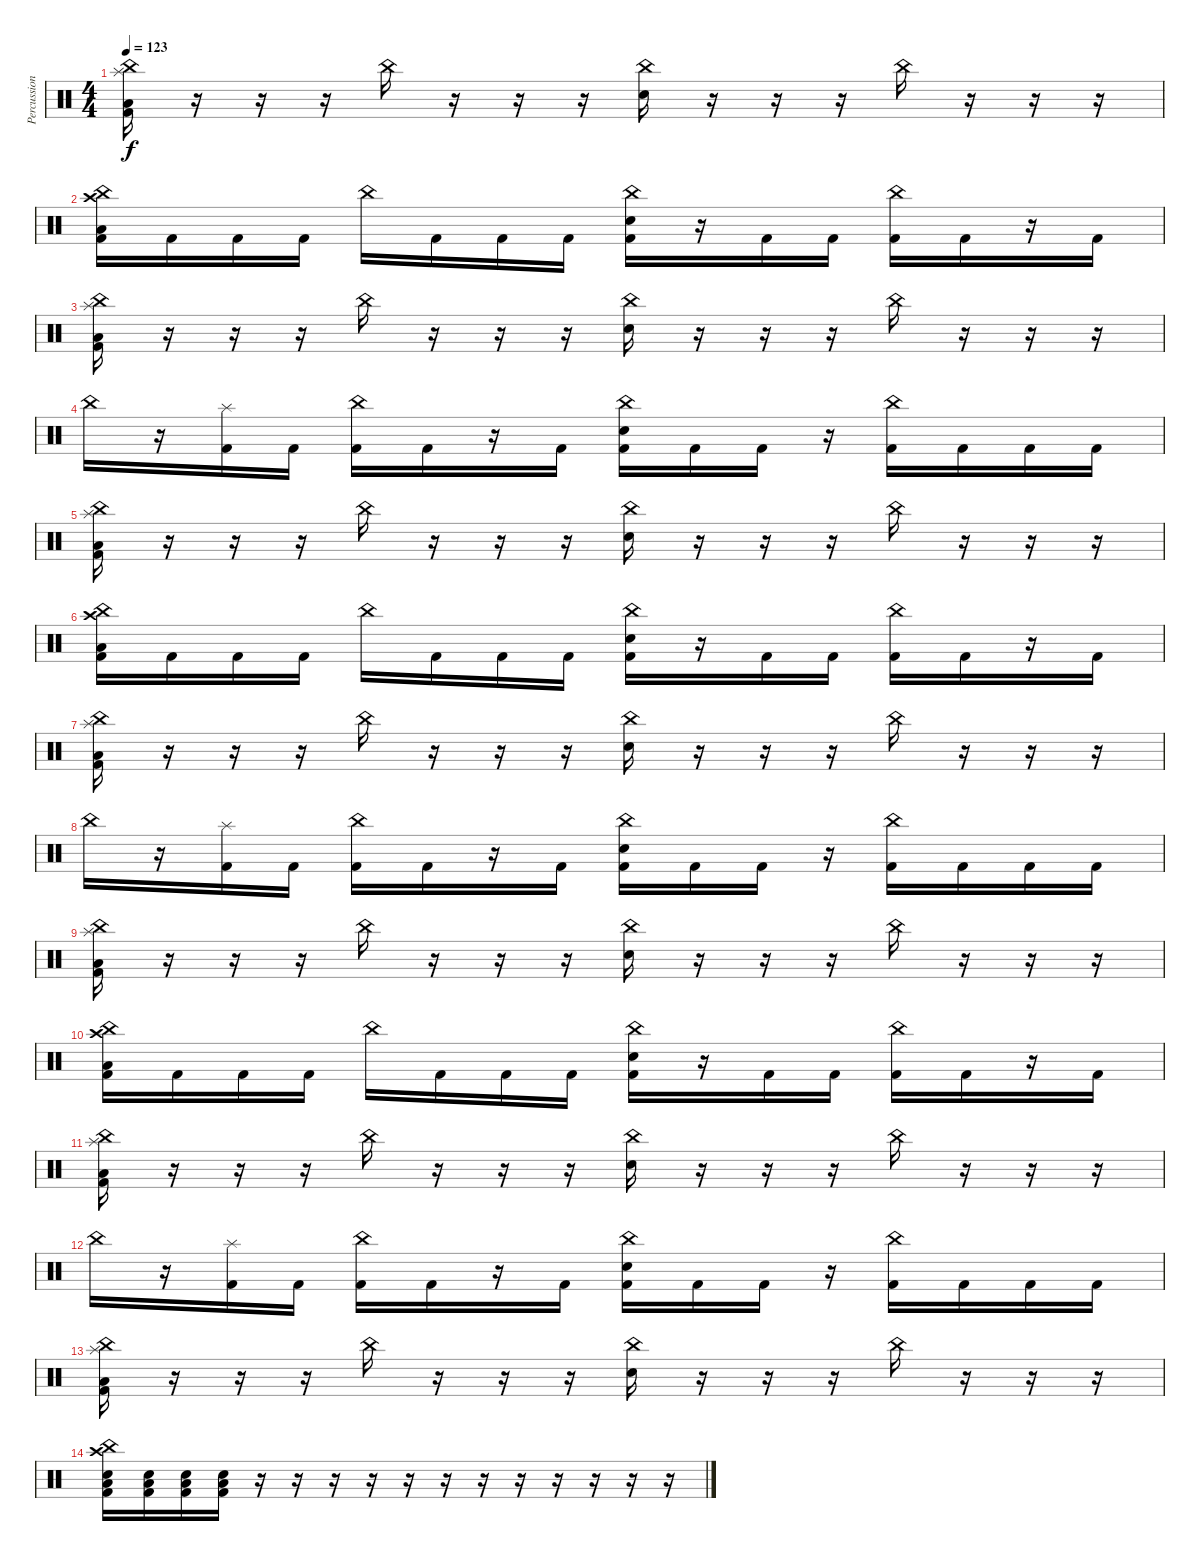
\track ("Percussion" "Percussion") {instrument percussion}
\staff {score}
\articulation defaults
\ts (4 4)
\tempo 123
\clef neutral
\ks c
("China (hit)" "Splash (hit)" "Low Floor Tom (hit)" "Kick (hit) 2").16{dy f} r.16 r.16 r.16 "China (hit)".16 r.16 r.16 r.16 ("China (hit)" "Electric Snare (hit)").16 r.16 r.16 r.16 "China (hit)".16 r.16 r.16 r.16 |
("China (hit)" "Crash high (hit)" "Low Floor Tom (hit)" "Kick (hit) 2").16 "Kick (hit) 2".16 "Kick (hit) 2".16 "Kick (hit) 2".16 "China (hit)".16 "Kick (hit) 2".16 "Kick (hit) 2".16 "Kick (hit) 2".16 ("China (hit)" "Electric Snare (hit)" "Kick (hit) 2").16 r.16 "Kick (hit) 2".16 "Kick (hit) 2".16 ("China (hit)" "Kick (hit) 2").16 "Kick (hit) 2".16 r.16 "Kick (hit) 2".16 |
("China (hit)" "Splash (hit)" "Low Floor Tom (hit)" "Kick (hit) 2").16 r.16 r.16 r.16 "China (hit)".16 r.16 r.16 r.16 ("China (hit)" "Electric Snare (hit)").16 r.16 r.16 r.16 "China (hit)".16 r.16 r.16 r.16 |
"China (hit)".16 r.16 ("Splash (hit)" "Kick (hit) 2").16 "Kick (hit) 2".16 ("China (hit)" "Kick (hit) 2").16 "Kick (hit) 2".16 r.16 "Kick (hit) 2".16 ("China (hit)" "Electric Snare (hit)" "Kick (hit) 2").16 "Kick (hit) 2".16 "Kick (hit) 2".16 r.16 ("China (hit)" "Kick (hit) 2").16 "Kick (hit) 2".16 "Kick (hit) 2".16 "Kick (hit) 2".16 |
("China (hit)" "Splash (hit)" "Low Floor Tom (hit)" "Kick (hit) 2").16 r.16 r.16 r.16 "China (hit)".16 r.16 r.16 r.16 ("China (hit)" "Electric Snare (hit)").16 r.16 r.16 r.16 "China (hit)".16 r.16 r.16 r.16 |
("China (hit)" "Crash high (hit)" "Low Floor Tom (hit)" "Kick (hit) 2").16 "Kick (hit) 2".16 "Kick (hit) 2".16 "Kick (hit) 2".16 "China (hit)".16 "Kick (hit) 2".16 "Kick (hit) 2".16 "Kick (hit) 2".16 ("China (hit)" "Electric Snare (hit)" "Kick (hit) 2").16 r.16 "Kick (hit) 2".16 "Kick (hit) 2".16 ("China (hit)" "Kick (hit) 2").16 "Kick (hit) 2".16 r.16 "Kick (hit) 2".16 |
("China (hit)" "Splash (hit)" "Low Floor Tom (hit)" "Kick (hit) 2").16 r.16 r.16 r.16 "China (hit)".16 r.16 r.16 r.16 ("China (hit)" "Electric Snare (hit)").16 r.16 r.16 r.16 "China (hit)".16 r.16 r.16 r.16 |
"China (hit)".16 r.16 ("Splash (hit)" "Kick (hit) 2").16 "Kick (hit) 2".16 ("China (hit)" "Kick (hit) 2").16 "Kick (hit) 2".16 r.16 "Kick (hit) 2".16 ("China (hit)" "Electric Snare (hit)" "Kick (hit) 2").16 "Kick (hit) 2".16 "Kick (hit) 2".16 r.16 ("China (hit)" "Kick (hit) 2").16 "Kick (hit) 2".16 "Kick (hit) 2".16 "Kick (hit) 2".16 |
("China (hit)" "Splash (hit)" "Low Floor Tom (hit)" "Kick (hit) 2").16 r.16 r.16 r.16 "China (hit)".16 r.16 r.16 r.16 ("China (hit)" "Electric Snare (hit)").16 r.16 r.16 r.16 "China (hit)".16 r.16 r.16 r.16 |
("China (hit)" "Crash high (hit)" "Low Floor Tom (hit)" "Kick (hit) 2").16 "Kick (hit) 2".16 "Kick (hit) 2".16 "Kick (hit) 2".16 "China (hit)".16 "Kick (hit) 2".16 "Kick (hit) 2".16 "Kick (hit) 2".16 ("China (hit)" "Electric Snare (hit)" "Kick (hit) 2").16 r.16 "Kick (hit) 2".16 "Kick (hit) 2".16 ("China (hit)" "Kick (hit) 2").16 "Kick (hit) 2".16 r.16 "Kick (hit) 2".16 |
("China (hit)" "Splash (hit)" "Low Floor Tom (hit)" "Kick (hit) 2").16 r.16 r.16 r.16 "China (hit)".16 r.16 r.16 r.16 ("China (hit)" "Electric Snare (hit)").16 r.16 r.16 r.16 "China (hit)".16 r.16 r.16 r.16 |
"China (hit)".16 r.16 ("Splash (hit)" "Kick (hit) 2").16 "Kick (hit) 2".16 ("China (hit)" "Kick (hit) 2").16 "Kick (hit) 2".16 r.16 "Kick (hit) 2".16 ("China (hit)" "Electric Snare (hit)" "Kick (hit) 2").16 "Kick (hit) 2".16 "Kick (hit) 2".16 r.16 ("China (hit)" "Kick (hit) 2").16 "Kick (hit) 2".16 "Kick (hit) 2".16 "Kick (hit) 2".16 |
("China (hit)" "Splash (hit)" "Low Floor Tom (hit)" "Kick (hit) 2").16 r.16 r.16 r.16 "China (hit)".16 r.16 r.16 r.16 ("China (hit)" "Electric Snare (hit)").16 r.16 r.16 r.16 "China (hit)".16 r.16 r.16 r.16 |
("China (hit)" "Crash high (hit)" "Electric Snare (hit)" "Low Floor Tom (hit)" "Kick (hit) 2").16 ("Electric Snare (hit)" "Low Floor Tom (hit)" "Kick (hit) 2").16 ("Electric Snare (hit)" "Low Floor Tom (hit)" "Kick (hit) 2").16 ("Electric Snare (hit)" "Low Floor Tom (hit)" "Kick (hit) 2").16 r.16 r.16 r.16 r.16 r.16 r.16 r.16 r.16 r.16 r.16 r.16 r.16
